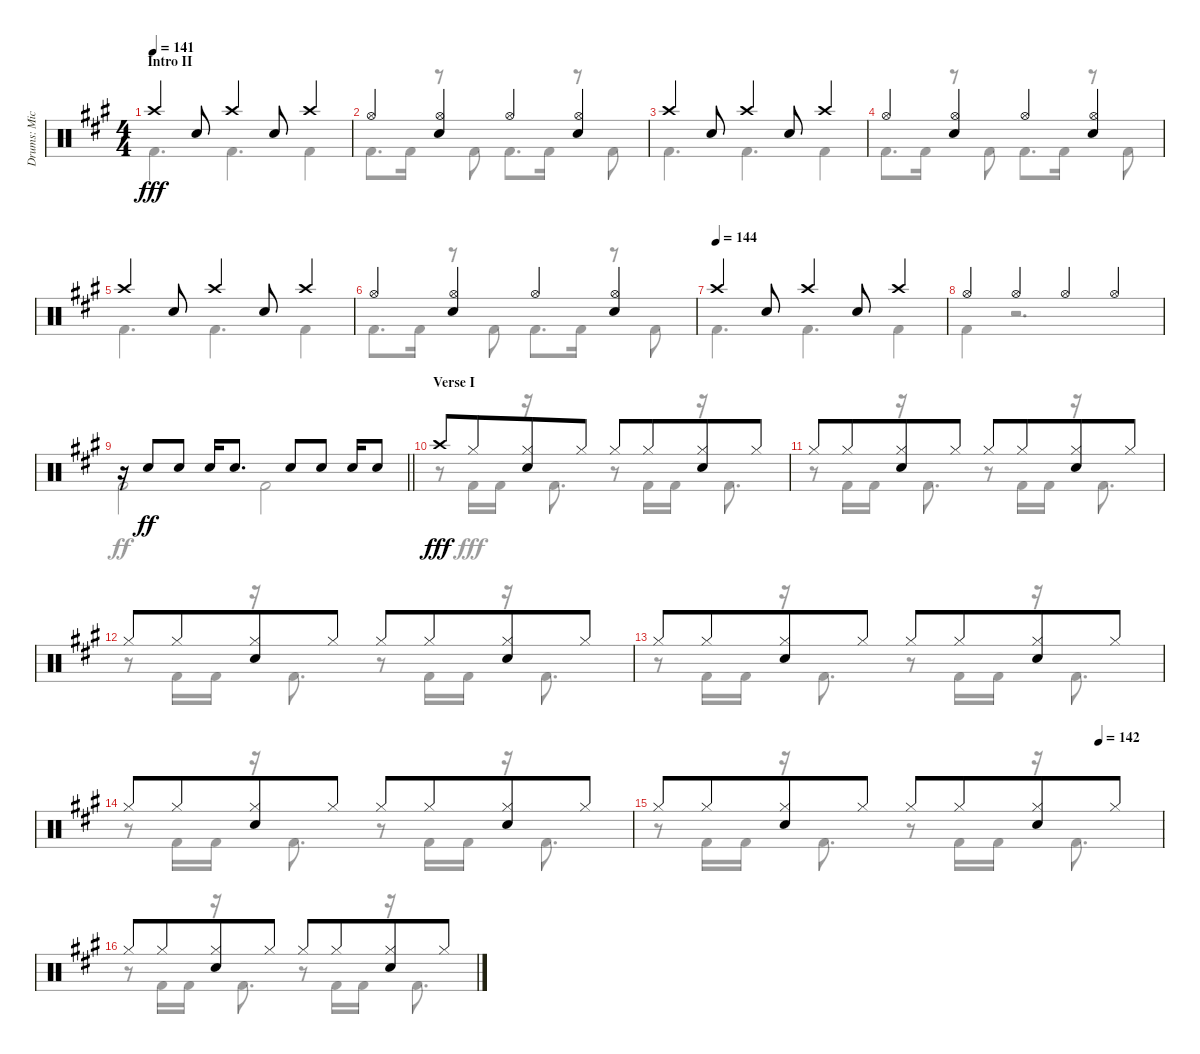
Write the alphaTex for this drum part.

\track ("Drums: Mick" "Drums: Mic") {instrument percussion}
\staff {score}
\articulation defaults
\voice
\ts (4 4)
\section ("" "Intro II")
\tempo 141
\clef neutral
\ks a "Crash high (hit)".4{dy fff} "Snare (hit) 2".8 "Crash high (hit)".4 "Snare (hit) 2".8 "Crash high (hit)".4
|
"Hi-Hat (open)".4 ("Hi-Hat (open)" "Snare (hit) 2").4 "Hi-Hat (open)".4 ("Hi-Hat (open)" "Snare (hit) 2").4 |
"Crash high (hit)".4 "Snare (hit) 2".8 "Crash high (hit)".4 "Snare (hit) 2".8 "Crash high (hit)".4 |
"Hi-Hat (open)".4 ("Hi-Hat (open)" "Snare (hit) 2").4 "Hi-Hat (open)".4 ("Hi-Hat (open)" "Snare (hit) 2").4 |
"Crash high (hit)".4 "Snare (hit) 2".8 "Crash high (hit)".4 "Snare (hit) 2".8 "Crash high (hit)".4 |
"Hi-Hat (open)".4 ("Hi-Hat (open)" "Snare (hit) 2").4 "Hi-Hat (open)".4 ("Hi-Hat (open)" "Snare (hit) 2").4 |
\tempo (144)
"Crash high (hit)".4 "Snare (hit) 2".8 "Crash high (hit)".4 "Snare (hit) 2".8 "Crash high (hit)".4 |
"Hi-Hat (open)".4 "Hi-Hat (open)".4 "Hi-Hat (open)".4 "Hi-Hat (open)".4 |
\barLineRight lightlight
r.16 "Snare (hit) 2".8{dy ff} "Snare (hit) 2".8 "Snare (hit) 2".16 "Snare (hit) 2".8{d} "Snare (hit) 2".8 "Snare (hit) 2".8 "Snare (hit) 2".16 "Snare (hit) 2".8 |
\section ("" "Verse I")
"Crash high (hit)".8{dy fff} "Hi-Hat (closed)".8{beam merge} ("Hi-Hat (closed)" "Snare (hit) 2").8 "Hi-Hat (closed)".8 "Hi-Hat (closed)".8{beam merge} "Hi-Hat (closed)".8{beam merge} ("Hi-Hat (closed)" "Snare (hit) 2").8 "Hi-Hat (closed)".8 |
"Hi-Hat (closed)".8 "Hi-Hat (closed)".8{beam merge} ("Hi-Hat (closed)" "Snare (hit) 2").8 "Hi-Hat (closed)".8 "Hi-Hat (closed)".8{beam merge} "Hi-Hat (closed)".8{beam merge} ("Hi-Hat (closed)" "Snare (hit) 2").8 "Hi-Hat (closed)".8 |
"Hi-Hat (closed)".8 "Hi-Hat (closed)".8{beam merge} ("Hi-Hat (closed)" "Snare (hit) 2").8 "Hi-Hat (closed)".8 "Hi-Hat (closed)".8{beam merge} "Hi-Hat (closed)".8{beam merge} ("Hi-Hat (closed)" "Snare (hit) 2").8 "Hi-Hat (closed)".8 |
"Hi-Hat (closed)".8 "Hi-Hat (closed)".8{beam merge} ("Hi-Hat (closed)" "Snare (hit) 2").8 "Hi-Hat (closed)".8 "Hi-Hat (closed)".8{beam merge} "Hi-Hat (closed)".8{beam merge} ("Hi-Hat (closed)" "Snare (hit) 2").8 "Hi-Hat (closed)".8 |
"Hi-Hat (closed)".8 "Hi-Hat (closed)".8{beam merge} ("Hi-Hat (closed)" "Snare (hit) 2").8 "Hi-Hat (closed)".8 "Hi-Hat (closed)".8{beam merge} "Hi-Hat (closed)".8{beam merge} ("Hi-Hat (closed)" "Snare (hit) 2").8 "Hi-Hat (closed)".8 |
\tempo (142 0.875)
"Hi-Hat (closed)".8 "Hi-Hat (closed)".8{beam merge} ("Hi-Hat (closed)" "Snare (hit) 2").8 "Hi-Hat (closed)".8 "Hi-Hat (closed)".8{beam merge} "Hi-Hat (closed)".8{beam merge} ("Hi-Hat (closed)" "Snare (hit) 2").8 "Hi-Hat (closed)".8 |
"Hi-Hat (closed)".8 "Hi-Hat (closed)".8{beam merge} ("Hi-Hat (closed)" "Snare (hit) 2").8 "Hi-Hat (closed)".8 "Hi-Hat (closed)".8{beam merge} "Hi-Hat (closed)".8{beam merge} ("Hi-Hat (closed)" "Snare (hit) 2").8 "Hi-Hat (closed)".8
\voice
\clef neutral
\ottava regular
\simile none
\ks a "Kick (hit) 2".4{d dy fff} "Kick (hit) 2".4{d} "Kick (hit) 2".4
|
"Kick (hit) 2".8{d} "Kick (hit) 2".16 r.8 "Kick (hit) 2".8 "Kick (hit) 2".8{d} "Kick (hit) 2".16 r.8 "Kick (hit) 2".8 |
"Kick (hit) 2".4{d} "Kick (hit) 2".4{d} "Kick (hit) 2".4 |
"Kick (hit) 2".8{d} "Kick (hit) 2".16 r.8 "Kick (hit) 2".8 "Kick (hit) 2".8{d} "Kick (hit) 2".16 r.8 "Kick (hit) 2".8 |
"Kick (hit) 2".4{d} "Kick (hit) 2".4{d} "Kick (hit) 2".4 |
"Kick (hit) 2".8{d} "Kick (hit) 2".16 r.8 "Kick (hit) 2".8 "Kick (hit) 2".8{d} "Kick (hit) 2".16 r.8 "Kick (hit) 2".8 |
"Kick (hit) 2".4{d} "Kick (hit) 2".4{d} "Kick (hit) 2".4 |
"Kick (hit) 2".4 r.2{d} |
\barLineRight lightlight "Kick (hit) 2".2{dy ff} "Kick (hit) 2".2
|
r.8 "Kick (hit) 2".16{dy fff} "Kick (hit) 2".16 r.16 "Kick (hit) 2".8{d} r.8 "Kick (hit) 2".16 "Kick (hit) 2".16 r.16 "Kick (hit) 2".8{d} |
r.8 "Kick (hit) 2".16 "Kick (hit) 2".16 r.16 "Kick (hit) 2".8{d} r.8 "Kick (hit) 2".16 "Kick (hit) 2".16 r.16 "Kick (hit) 2".8{d} |
r.8 "Kick (hit) 2".16 "Kick (hit) 2".16 r.16 "Kick (hit) 2".8{d} r.8 "Kick (hit) 2".16 "Kick (hit) 2".16 r.16 "Kick (hit) 2".8{d} |
r.8 "Kick (hit) 2".16 "Kick (hit) 2".16 r.16 "Kick (hit) 2".8{d} r.8 "Kick (hit) 2".16 "Kick (hit) 2".16 r.16 "Kick (hit) 2".8{d} |
r.8 "Kick (hit) 2".16 "Kick (hit) 2".16 r.16 "Kick (hit) 2".8{d} r.8 "Kick (hit) 2".16 "Kick (hit) 2".16 r.16 "Kick (hit) 2".8{d} |
r.8 "Kick (hit) 2".16 "Kick (hit) 2".16 r.16 "Kick (hit) 2".8{d} r.8 "Kick (hit) 2".16 "Kick (hit) 2".16 r.16 "Kick (hit) 2".8{d} |
r.8 "Kick (hit) 2".16 "Kick (hit) 2".16 r.16 "Kick (hit) 2".8{d} r.8 "Kick (hit) 2".16 "Kick (hit) 2".16 r.16 "Kick (hit) 2".8{d}
